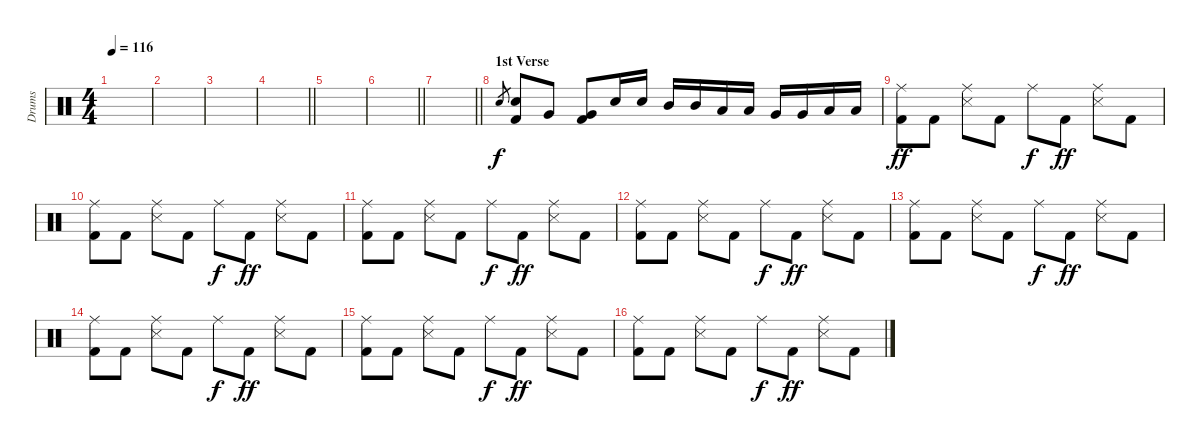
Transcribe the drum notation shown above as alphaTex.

\track ("Drums" "Drums") {instrument percussion}
\staff {score}
\articulation defaults
\ts (4 4)
\tempo 116
\clef neutral
\ks c
|
|
|
\barLineRight lightlight
|
|
\barLineRight lightlight
|
\barLineRight lightlight
|
\section ("" "1st Verse")
"Snare (hit) 2".8{gr} ("Snare (hit) 2" "Kick (hit) 2").8 "Very Low Tom (hit)".8 ("Very Low Tom (hit)" "Kick (hit) 2").8 "Snare (hit) 2".16 "Snare (hit) 2".16 "Mid Tom (hit)".16 "Mid Tom (hit)".16 "Low Tom (hit)".16 "Low Tom (hit)".16 "Very Low Tom (hit)".16 "Very Low Tom (hit)".16 "Low Floor Tom (hit)".16 "Low Floor Tom (hit)".16 |
("Ride (middle)" "Kick (hit) 2").8{dy ff} "Kick (hit) 2".8 ("Ride (middle)" "Snare (side stick) 3").8 "Kick (hit) 2".8 "Ride (middle)".8{dy f} "Kick (hit) 2".8{dy ff} ("Ride (middle)" "Snare (side stick) 3").8 "Kick (hit) 2".8 |
("Ride (middle)" "Kick (hit) 2").8 "Kick (hit) 2".8 ("Ride (middle)" "Snare (side stick) 3").8 "Kick (hit) 2".8 "Ride (middle)".8{dy f} "Kick (hit) 2".8{dy ff} ("Ride (middle)" "Snare (side stick) 3").8 "Kick (hit) 2".8 |
("Ride (middle)" "Kick (hit) 2").8 "Kick (hit) 2".8 ("Ride (middle)" "Snare (side stick) 3").8 "Kick (hit) 2".8 "Ride (middle)".8{dy f} "Kick (hit) 2".8{dy ff} ("Ride (middle)" "Snare (side stick) 3").8 "Kick (hit) 2".8 |
("Ride (middle)" "Kick (hit) 2").8 "Kick (hit) 2".8 ("Ride (middle)" "Snare (side stick) 3").8 "Kick (hit) 2".8 "Ride (middle)".8{dy f} "Kick (hit) 2".8{dy ff} ("Ride (middle)" "Snare (side stick) 3").8 "Kick (hit) 2".8 |
("Ride (middle)" "Kick (hit) 2").8 "Kick (hit) 2".8 ("Ride (middle)" "Snare (side stick) 3").8 "Kick (hit) 2".8 "Ride (middle)".8{dy f} "Kick (hit) 2".8{dy ff} ("Ride (middle)" "Snare (side stick) 3").8 "Kick (hit) 2".8 |
("Ride (middle)" "Kick (hit) 2").8 "Kick (hit) 2".8 ("Ride (middle)" "Snare (side stick) 3").8 "Kick (hit) 2".8 "Ride (middle)".8{dy f} "Kick (hit) 2".8{dy ff} ("Ride (middle)" "Snare (side stick) 3").8 "Kick (hit) 2".8 |
("Ride (middle)" "Kick (hit) 2").8 "Kick (hit) 2".8 ("Ride (middle)" "Snare (side stick) 3").8 "Kick (hit) 2".8 "Ride (middle)".8{dy f} "Kick (hit) 2".8{dy ff} ("Ride (middle)" "Snare (side stick) 3").8 "Kick (hit) 2".8 |
("Ride (middle)" "Kick (hit) 2").8 "Kick (hit) 2".8 ("Ride (middle)" "Snare (side stick) 3").8 "Kick (hit) 2".8 "Ride (middle)".8{dy f} "Kick (hit) 2".8{dy ff} ("Ride (middle)" "Snare (side stick) 3").8 "Kick (hit) 2".8
